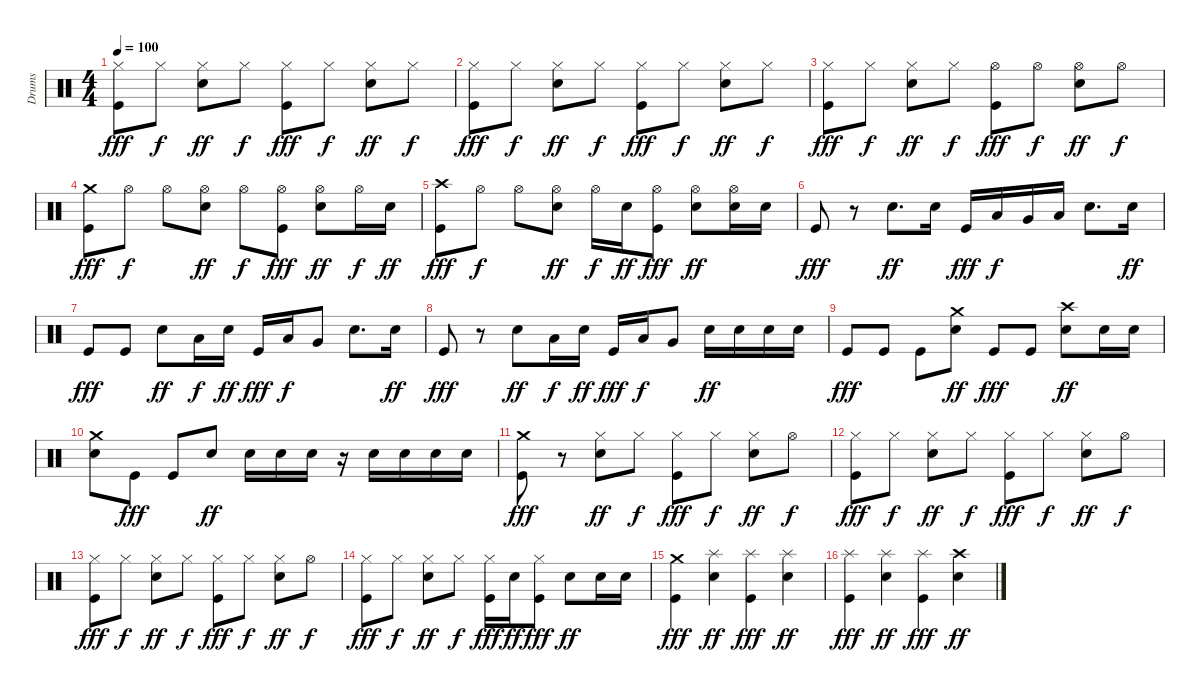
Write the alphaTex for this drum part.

\track ("Drums" "Drums") {instrument percussion}
\staff {score}
\articulation defaults
\ts (4 4)
\tempo 100
\clef neutral
\ks c
("Kick (hit)" "Hi-Hat (closed)").8{dy fff} "Hi-Hat (closed)".8{dy f} ("Snare (hit) 2" "Hi-Hat (closed)").8{dy ff} "Hi-Hat (closed)".8{dy f} ("Kick (hit)" "Hi-Hat (closed)").8{dy fff} "Hi-Hat (closed)".8{dy f} ("Snare (hit) 2" "Hi-Hat (closed)").8{dy ff} "Hi-Hat (closed)".8{dy f} |
("Kick (hit)" "Hi-Hat (closed)").8{dy fff} "Hi-Hat (closed)".8{dy f} ("Snare (hit) 2" "Hi-Hat (closed)").8{dy ff} "Hi-Hat (closed)".8{dy f} ("Kick (hit)" "Hi-Hat (closed)").8{dy fff} "Hi-Hat (closed)".8{dy f} ("Snare (hit) 2" "Hi-Hat (closed)").8{dy ff} "Hi-Hat (closed)".8{dy f} |
("Kick (hit)" "Hi-Hat (closed)").8{dy fff} "Hi-Hat (closed)".8{dy f} ("Snare (hit) 2" "Hi-Hat (closed)").8{dy ff} "Hi-Hat (closed)".8{dy f} ("Kick (hit)" "Hi-Hat (open)").8{dy fff} "Hi-Hat (open)".8{dy f} ("Snare (hit) 2" "Hi-Hat (open)").8{dy ff} "Hi-Hat (open)".8{dy f} |
("Kick (hit)" "Crash medium (hit)").8{dy fff} "Hi-Hat (open)".8{dy f} "Hi-Hat (open)".8 ("Snare (hit) 2" "Hi-Hat (open)").8{dy ff} "Hi-Hat (open)".8{dy f} ("Kick (hit)" "Hi-Hat (open)").8{dy fff} ("Snare (hit) 2" "Hi-Hat (open)").8{dy ff} "Hi-Hat (open)".16{dy f} "Snare (hit) 2".16{dy ff} |
("Kick (hit)" "Crash high (hit)").8{dy fff} "Hi-Hat (open)".8{dy f} "Hi-Hat (open)".8 ("Snare (hit) 2" "Hi-Hat (open)").8{dy ff} "Hi-Hat (open)".16{dy f} "Snare (hit) 2".16{dy ff} ("Kick (hit)" "Hi-Hat (open)").8{dy fff} ("Snare (hit) 2" "Hi-Hat (open)").8{dy ff} ("Snare (hit) 2" "Hi-Hat (open)").16 "Snare (hit) 2".16 |
"Kick (hit)".8{dy fff} r.8 "Snare (hit) 2".8{d dy ff} "Snare (hit) 2".16 "Kick (hit)".16{dy fff} "Low Tom (hit)".16{dy f} "Very Low Tom (hit)".16 "Low Floor Tom (hit)".16 "Snare (hit) 2".8{d} "Snare (hit) 2".16{dy ff} |
"Kick (hit)".8{dy fff} "Kick (hit)".8 "Snare (hit) 2".8{dy ff} "Low Tom (hit)".16{dy f} "Snare (hit) 2".16{dy ff} "Kick (hit)".16{dy fff} "Low Tom (hit)".16{dy f} "Very Low Tom (hit)".8 "Snare (hit) 2".8{d} "Snare (hit) 2".16{dy ff} |
"Kick (hit)".8{dy fff} r.8 "Snare (hit) 2".8{dy ff} "Low Tom (hit)".16{dy f} "Snare (hit) 2".16{dy ff} "Kick (hit)".16{dy fff} "Low Tom (hit)".16{dy f} "Very Low Tom (hit)".8 "Snare (hit) 2".16{dy ff} "Snare (hit) 2".16 "Snare (hit) 2".16 "Snare (hit) 2".16 |
"Kick (hit)".8{dy fff} "Kick (hit)".8 "Kick (hit)".8 ("Snare (hit) 2" "Crash medium (hit)").8{dy ff} "Kick (hit)".8{dy fff} "Kick (hit)".8 ("Snare (hit) 2" "Crash high (hit)").8{dy ff} "Snare (hit) 2".16 "Snare (hit) 2".16 |
("Snare (hit) 2" "Crash medium (hit)").8 "Kick (hit)".8{dy fff} "Kick (hit)".8 "Snare (hit) 2".8{dy ff} "Snare (hit) 2".16 "Snare (hit) 2".16 "Snare (hit) 2".16 r.16 "Snare (hit) 2".16 "Snare (hit) 2".16 "Snare (hit) 2".16 "Snare (hit) 2".16 |
("Kick (hit)" "Crash medium (hit)").8{dy fff} r.8 ("Snare (hit) 2" "Hi-Hat (closed)").8{dy ff} "Hi-Hat (closed)".8{dy f} ("Kick (hit)" "Hi-Hat (closed)").8{dy fff} "Hi-Hat (closed)".8{dy f} ("Snare (hit) 2" "Hi-Hat (closed)").8{dy ff} "Hi-Hat (open)".8{dy f} |
("Kick (hit)" "Hi-Hat (closed)").8{dy fff} "Hi-Hat (closed)".8{dy f} ("Snare (hit) 2" "Hi-Hat (closed)").8{dy ff} "Hi-Hat (closed)".8{dy f} ("Kick (hit)" "Hi-Hat (closed)").8{dy fff} "Hi-Hat (closed)".8{dy f} ("Snare (hit) 2" "Hi-Hat (closed)").8{dy ff} "Hi-Hat (open)".8{dy f} |
("Kick (hit)" "Hi-Hat (closed)").8{dy fff} "Hi-Hat (closed)".8{dy f} ("Snare (hit) 2" "Hi-Hat (closed)").8{dy ff} "Hi-Hat (closed)".8{dy f} ("Kick (hit)" "Hi-Hat (closed)").8{dy fff} "Hi-Hat (closed)".8{dy f} ("Snare (hit) 2" "Hi-Hat (closed)").8{dy ff} "Hi-Hat (open)".8{dy f} |
("Kick (hit)" "Hi-Hat (closed)").8{dy fff} "Hi-Hat (closed)".8{dy f} ("Snare (hit) 2" "Hi-Hat (closed)").8{dy ff} "Hi-Hat (closed)".8{dy f} ("Kick (hit)" "Hi-Hat (closed)").16{dy fff} "Snare (hit) 2".16{dy ff} ("Kick (hit)" "Hi-Hat (closed)").8{dy fff} "Snare (hit) 2".8{dy ff} "Snare (hit) 2".16 "Snare (hit) 2".16 |
("Kick (hit)" "Crash medium (hit)").4{dy fff} ("Snare (hit) 2" "Splash (hit)").4{dy ff} ("Kick (hit)" "Splash (hit)").4{dy fff} ("Snare (hit) 2" "Splash (hit)").4{dy ff} |
("Kick (hit)" "Splash (hit)").4{dy fff} ("Snare (hit) 2" "Splash (hit)").4{dy ff} ("Kick (hit)" "Splash (hit)").4{dy fff} ("Snare (hit) 2" "Crash high (hit)").4{dy ff}
